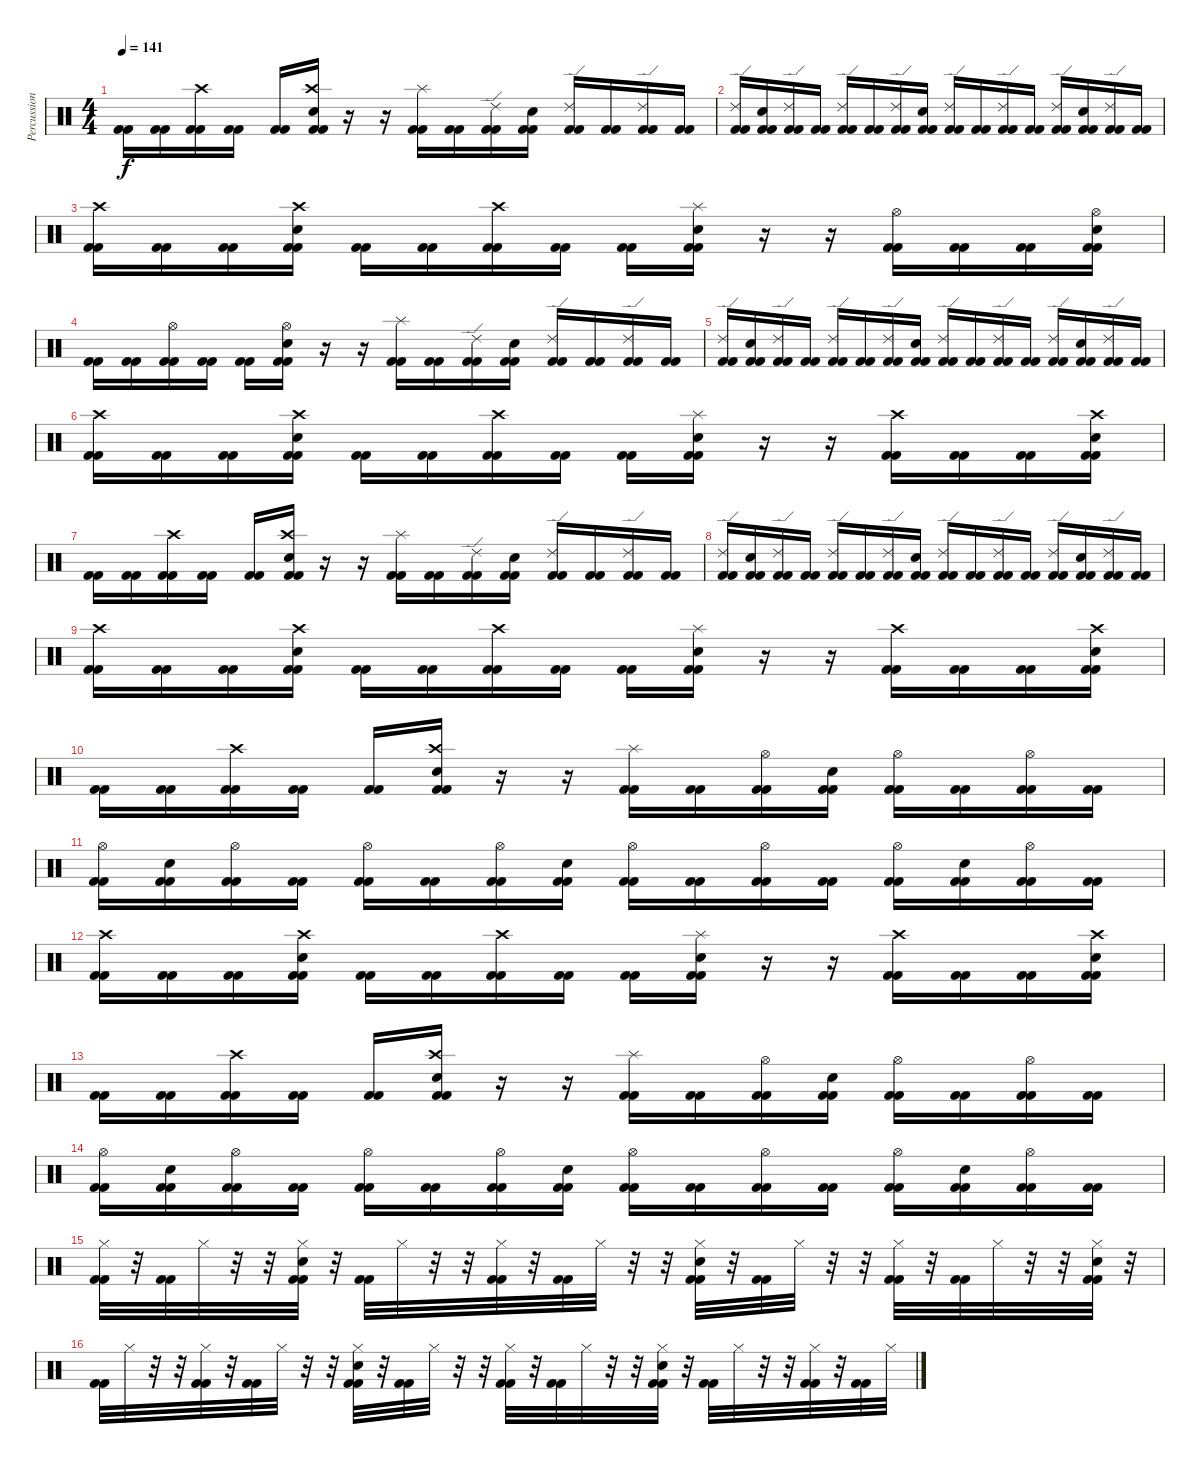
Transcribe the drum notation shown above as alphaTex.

\track ("Percussions" "Percussion") {instrument percussion}
\staff {score}
\articulation defaults
\ts (4 4)
\tempo 141
\clef neutral
\ks c
("Kick (hit) 2" "Kick (hit) 2").16{dy f} ("Kick (hit) 2" "Kick (hit) 2").16 ("Crash high (hit)" "Kick (hit) 2" "Kick (hit) 2").16 ("Kick (hit) 2" "Kick (hit) 2").16 ("Kick (hit) 2" "Kick (hit) 2").16 ("Crash high (hit)" "Snare (hit) 2" "Kick (hit) 2" "Kick (hit) 2").16 r.16 r.16 ("Splash (hit)" "Kick (hit) 2" "Kick (hit) 2").16 ("Kick (hit) 2" "Kick (hit) 2").16 ("Ride (edge) 2" "Kick (hit) 2" "Kick (hit) 2").16 ("Snare (hit) 2" "Kick (hit) 2" "Kick (hit) 2").16 ("Ride (edge) 2" "Kick (hit) 2" "Kick (hit) 2").16 ("Kick (hit) 2" "Kick (hit) 2").16 ("Ride (edge) 2" "Kick (hit) 2" "Kick (hit) 2").16 ("Kick (hit) 2" "Kick (hit) 2").16 |
("Ride (edge) 2" "Kick (hit) 2" "Kick (hit) 2").16 ("Snare (hit) 2" "Kick (hit) 2" "Kick (hit) 2").16 ("Ride (edge) 2" "Kick (hit) 2" "Kick (hit) 2").16 ("Kick (hit) 2" "Kick (hit) 2").16 ("Ride (edge) 2" "Kick (hit) 2" "Kick (hit) 2").16 ("Kick (hit) 2" "Kick (hit) 2").16 ("Ride (edge) 2" "Kick (hit) 2" "Kick (hit) 2").16 ("Snare (hit) 2" "Kick (hit) 2" "Kick (hit) 2").16 ("Ride (edge) 2" "Kick (hit) 2" "Kick (hit) 2").16 ("Kick (hit) 2" "Kick (hit) 2").16 ("Ride (edge) 2" "Kick (hit) 2" "Kick (hit) 2").16 ("Kick (hit) 2" "Kick (hit) 2").16 ("Ride (edge) 2" "Kick (hit) 2" "Kick (hit) 2").16 ("Snare (hit) 2" "Kick (hit) 2" "Kick (hit) 2").16 ("Ride (edge) 2" "Kick (hit) 2" "Kick (hit) 2").16 ("Kick (hit) 2" "Kick (hit) 2").16 |
("Crash high (hit)" "Kick (hit) 2" "Kick (hit) 2").16 ("Kick (hit) 2" "Kick (hit) 2").16 ("Kick (hit) 2" "Kick (hit) 2").16 ("Crash high (hit)" "Snare (hit) 2" "Kick (hit) 2" "Kick (hit) 2").16 ("Kick (hit) 2" "Kick (hit) 2").16 ("Kick (hit) 2" "Kick (hit) 2").16 ("Crash high (hit)" "Kick (hit) 2" "Kick (hit) 2").16 ("Kick (hit) 2" "Kick (hit) 2").16 ("Kick (hit) 2" "Kick (hit) 2").16 ("Splash (hit)" "Snare (hit) 2" "Kick (hit) 2" "Kick (hit) 2").16 r.16 r.16 ("Hi-Hat (open)" "Kick (hit) 2" "Kick (hit) 2").16 ("Kick (hit) 2" "Kick (hit) 2").16 ("Kick (hit) 2" "Kick (hit) 2").16 ("Hi-Hat (open)" "Snare (hit) 2" "Kick (hit) 2" "Kick (hit) 2").16 |
("Kick (hit) 2" "Kick (hit) 2").16 ("Kick (hit) 2" "Kick (hit) 2").16 ("Hi-Hat (open)" "Kick (hit) 2" "Kick (hit) 2").16 ("Kick (hit) 2" "Kick (hit) 2").16 ("Kick (hit) 2" "Kick (hit) 2").16 ("Hi-Hat (open)" "Snare (hit) 2" "Kick (hit) 2" "Kick (hit) 2").16 r.16 r.16 ("Splash (hit)" "Kick (hit) 2" "Kick (hit) 2").16 ("Kick (hit) 2" "Kick (hit) 2").16 ("Ride (edge) 2" "Kick (hit) 2" "Kick (hit) 2").16 ("Snare (hit) 2" "Kick (hit) 2" "Kick (hit) 2").16 ("Ride (edge) 2" "Kick (hit) 2" "Kick (hit) 2").16 ("Kick (hit) 2" "Kick (hit) 2").16 ("Ride (edge) 2" "Kick (hit) 2" "Kick (hit) 2").16 ("Kick (hit) 2" "Kick (hit) 2").16 |
("Ride (edge) 2" "Kick (hit) 2" "Kick (hit) 2").16 ("Snare (hit) 2" "Kick (hit) 2" "Kick (hit) 2").16 ("Ride (edge) 2" "Kick (hit) 2" "Kick (hit) 2").16 ("Kick (hit) 2" "Kick (hit) 2").16 ("Ride (edge) 2" "Kick (hit) 2" "Kick (hit) 2").16 ("Kick (hit) 2" "Kick (hit) 2").16 ("Ride (edge) 2" "Kick (hit) 2" "Kick (hit) 2").16 ("Snare (hit) 2" "Kick (hit) 2" "Kick (hit) 2").16 ("Ride (edge) 2" "Kick (hit) 2" "Kick (hit) 2").16 ("Kick (hit) 2" "Kick (hit) 2").16 ("Ride (edge) 2" "Kick (hit) 2" "Kick (hit) 2").16 ("Kick (hit) 2" "Kick (hit) 2").16 ("Ride (edge) 2" "Kick (hit) 2" "Kick (hit) 2").16 ("Snare (hit) 2" "Kick (hit) 2" "Kick (hit) 2").16 ("Ride (edge) 2" "Kick (hit) 2" "Kick (hit) 2").16 ("Kick (hit) 2" "Kick (hit) 2").16 |
("Crash high (hit)" "Kick (hit) 2" "Kick (hit) 2").16 ("Kick (hit) 2" "Kick (hit) 2").16 ("Kick (hit) 2" "Kick (hit) 2").16 ("Crash high (hit)" "Snare (hit) 2" "Kick (hit) 2" "Kick (hit) 2").16 ("Kick (hit) 2" "Kick (hit) 2").16 ("Kick (hit) 2" "Kick (hit) 2").16 ("Crash high (hit)" "Kick (hit) 2" "Kick (hit) 2").16 ("Kick (hit) 2" "Kick (hit) 2").16 ("Kick (hit) 2" "Kick (hit) 2").16 ("Splash (hit)" "Snare (hit) 2" "Kick (hit) 2" "Kick (hit) 2").16 r.16 r.16 ("Crash high (hit)" "Kick (hit) 2" "Kick (hit) 2").16 ("Kick (hit) 2" "Kick (hit) 2").16 ("Kick (hit) 2" "Kick (hit) 2").16 ("Crash high (hit)" "Snare (hit) 2" "Kick (hit) 2" "Kick (hit) 2").16 |
("Kick (hit) 2" "Kick (hit) 2").16 ("Kick (hit) 2" "Kick (hit) 2").16 ("Crash high (hit)" "Kick (hit) 2" "Kick (hit) 2").16 ("Kick (hit) 2" "Kick (hit) 2").16 ("Kick (hit) 2" "Kick (hit) 2").16 ("Crash high (hit)" "Snare (hit) 2" "Kick (hit) 2" "Kick (hit) 2").16 r.16 r.16 ("Splash (hit)" "Kick (hit) 2" "Kick (hit) 2").16 ("Kick (hit) 2" "Kick (hit) 2").16 ("Ride (edge) 2" "Kick (hit) 2" "Kick (hit) 2").16 ("Snare (hit) 2" "Kick (hit) 2" "Kick (hit) 2").16 ("Ride (edge) 2" "Kick (hit) 2" "Kick (hit) 2").16 ("Kick (hit) 2" "Kick (hit) 2").16 ("Ride (edge) 2" "Kick (hit) 2" "Kick (hit) 2").16 ("Kick (hit) 2" "Kick (hit) 2").16 |
("Ride (edge) 2" "Kick (hit) 2" "Kick (hit) 2").16 ("Snare (hit) 2" "Kick (hit) 2" "Kick (hit) 2").16 ("Ride (edge) 2" "Kick (hit) 2" "Kick (hit) 2").16 ("Kick (hit) 2" "Kick (hit) 2").16 ("Ride (edge) 2" "Kick (hit) 2" "Kick (hit) 2").16 ("Kick (hit) 2" "Kick (hit) 2").16 ("Ride (edge) 2" "Kick (hit) 2" "Kick (hit) 2").16 ("Snare (hit) 2" "Kick (hit) 2" "Kick (hit) 2").16 ("Ride (edge) 2" "Kick (hit) 2" "Kick (hit) 2").16 ("Kick (hit) 2" "Kick (hit) 2").16 ("Ride (edge) 2" "Kick (hit) 2" "Kick (hit) 2").16 ("Kick (hit) 2" "Kick (hit) 2").16 ("Ride (edge) 2" "Kick (hit) 2" "Kick (hit) 2").16 ("Snare (hit) 2" "Kick (hit) 2" "Kick (hit) 2").16 ("Ride (edge) 2" "Kick (hit) 2" "Kick (hit) 2").16 ("Kick (hit) 2" "Kick (hit) 2").16 |
("Crash high (hit)" "Kick (hit) 2" "Kick (hit) 2").16 ("Kick (hit) 2" "Kick (hit) 2").16 ("Kick (hit) 2" "Kick (hit) 2").16 ("Crash high (hit)" "Snare (hit) 2" "Kick (hit) 2" "Kick (hit) 2").16 ("Kick (hit) 2" "Kick (hit) 2").16 ("Kick (hit) 2" "Kick (hit) 2").16 ("Crash high (hit)" "Kick (hit) 2" "Kick (hit) 2").16 ("Kick (hit) 2" "Kick (hit) 2").16 ("Kick (hit) 2" "Kick (hit) 2").16 ("Splash (hit)" "Snare (hit) 2" "Kick (hit) 2" "Kick (hit) 2").16 r.16 r.16 ("Crash high (hit)" "Kick (hit) 2" "Kick (hit) 2").16 ("Kick (hit) 2" "Kick (hit) 2").16 ("Kick (hit) 2" "Kick (hit) 2").16 ("Crash high (hit)" "Snare (hit) 2" "Kick (hit) 2" "Kick (hit) 2").16 |
("Kick (hit) 2" "Kick (hit) 2").16 ("Kick (hit) 2" "Kick (hit) 2").16 ("Crash high (hit)" "Kick (hit) 2" "Kick (hit) 2").16 ("Kick (hit) 2" "Kick (hit) 2").16 ("Kick (hit) 2" "Kick (hit) 2").16 ("Crash high (hit)" "Snare (hit) 2" "Kick (hit) 2" "Kick (hit) 2").16 r.16 r.16 ("Splash (hit)" "Kick (hit) 2" "Kick (hit) 2").16 ("Kick (hit) 2" "Kick (hit) 2").16 ("Hi-Hat (open)" "Kick (hit) 2" "Kick (hit) 2").16 ("Snare (hit) 2" "Kick (hit) 2" "Kick (hit) 2").16 ("Hi-Hat (open)" "Kick (hit) 2" "Kick (hit) 2").16 ("Kick (hit) 2" "Kick (hit) 2").16 ("Hi-Hat (open)" "Kick (hit) 2" "Kick (hit) 2").16 ("Kick (hit) 2" "Kick (hit) 2").16 |
("Hi-Hat (open)" "Kick (hit) 2" "Kick (hit) 2").16 ("Snare (hit) 2" "Kick (hit) 2" "Kick (hit) 2").16 ("Hi-Hat (open)" "Kick (hit) 2" "Kick (hit) 2").16 ("Kick (hit) 2" "Kick (hit) 2").16 ("Hi-Hat (open)" "Kick (hit) 2" "Kick (hit) 2").16 ("Kick (hit) 2" "Kick (hit) 2").16 ("Hi-Hat (open)" "Kick (hit) 2" "Kick (hit) 2").16 ("Snare (hit) 2" "Kick (hit) 2" "Kick (hit) 2").16 ("Hi-Hat (open)" "Kick (hit) 2" "Kick (hit) 2").16 ("Kick (hit) 2" "Kick (hit) 2").16 ("Hi-Hat (open)" "Kick (hit) 2" "Kick (hit) 2").16 ("Kick (hit) 2" "Kick (hit) 2").16 ("Hi-Hat (open)" "Kick (hit) 2" "Kick (hit) 2").16 ("Snare (hit) 2" "Kick (hit) 2" "Kick (hit) 2").16 ("Hi-Hat (open)" "Kick (hit) 2" "Kick (hit) 2").16 ("Kick (hit) 2" "Kick (hit) 2").16 |
("Crash high (hit)" "Kick (hit) 2" "Kick (hit) 2").16 ("Kick (hit) 2" "Kick (hit) 2").16 ("Kick (hit) 2" "Kick (hit) 2").16 ("Crash high (hit)" "Snare (hit) 2" "Kick (hit) 2" "Kick (hit) 2").16 ("Kick (hit) 2" "Kick (hit) 2").16 ("Kick (hit) 2" "Kick (hit) 2").16 ("Crash high (hit)" "Kick (hit) 2" "Kick (hit) 2").16 ("Kick (hit) 2" "Kick (hit) 2").16 ("Kick (hit) 2" "Kick (hit) 2").16 ("Splash (hit)" "Snare (hit) 2" "Kick (hit) 2" "Kick (hit) 2").16 r.16 r.16 ("Crash high (hit)" "Kick (hit) 2" "Kick (hit) 2").16 ("Kick (hit) 2" "Kick (hit) 2").16 ("Kick (hit) 2" "Kick (hit) 2").16 ("Crash high (hit)" "Snare (hit) 2" "Kick (hit) 2" "Kick (hit) 2").16 |
("Kick (hit) 2" "Kick (hit) 2").16 ("Kick (hit) 2" "Kick (hit) 2").16 ("Crash high (hit)" "Kick (hit) 2" "Kick (hit) 2").16 ("Kick (hit) 2" "Kick (hit) 2").16 ("Kick (hit) 2" "Kick (hit) 2").16 ("Crash high (hit)" "Snare (hit) 2" "Kick (hit) 2" "Kick (hit) 2").16 r.16 r.16 ("Splash (hit)" "Kick (hit) 2" "Kick (hit) 2").16 ("Kick (hit) 2" "Kick (hit) 2").16 ("Hi-Hat (open)" "Kick (hit) 2" "Kick (hit) 2").16 ("Snare (hit) 2" "Kick (hit) 2" "Kick (hit) 2").16 ("Hi-Hat (open)" "Kick (hit) 2" "Kick (hit) 2").16 ("Kick (hit) 2" "Kick (hit) 2").16 ("Hi-Hat (open)" "Kick (hit) 2" "Kick (hit) 2").16 ("Kick (hit) 2" "Kick (hit) 2").16 |
("Hi-Hat (open)" "Kick (hit) 2" "Kick (hit) 2").16 ("Snare (hit) 2" "Kick (hit) 2" "Kick (hit) 2").16 ("Hi-Hat (open)" "Kick (hit) 2" "Kick (hit) 2").16 ("Kick (hit) 2" "Kick (hit) 2").16 ("Hi-Hat (open)" "Kick (hit) 2" "Kick (hit) 2").16 ("Kick (hit) 2" "Kick (hit) 2").16 ("Hi-Hat (open)" "Kick (hit) 2" "Kick (hit) 2").16 ("Snare (hit) 2" "Kick (hit) 2" "Kick (hit) 2").16 ("Hi-Hat (open)" "Kick (hit) 2" "Kick (hit) 2").16 ("Kick (hit) 2" "Kick (hit) 2").16 ("Hi-Hat (open)" "Kick (hit) 2" "Kick (hit) 2").16 ("Kick (hit) 2" "Kick (hit) 2").16 ("Hi-Hat (open)" "Kick (hit) 2" "Kick (hit) 2").16 ("Snare (hit) 2" "Kick (hit) 2" "Kick (hit) 2").16 ("Hi-Hat (open)" "Kick (hit) 2" "Kick (hit) 2").16 ("Kick (hit) 2" "Kick (hit) 2").16 |
("Hi-Hat (closed)" "Kick (hit) 2" "Kick (hit) 2").32 r.32 ("Kick (hit) 2" "Kick (hit) 2").32 "Hi-Hat (closed)".32 r.32 r.32 ("Hi-Hat (closed)" "Snare (hit) 2" "Kick (hit) 2" "Kick (hit) 2").32 r.32 ("Kick (hit) 2" "Kick (hit) 2").32 "Hi-Hat (closed)".32 r.32 r.32 ("Hi-Hat (closed)" "Kick (hit) 2" "Kick (hit) 2").32 r.32 ("Kick (hit) 2" "Kick (hit) 2").32 "Hi-Hat (closed)".32 r.32 r.32 ("Hi-Hat (closed)" "Snare (hit) 2" "Kick (hit) 2" "Kick (hit) 2").32 r.32 ("Kick (hit) 2" "Kick (hit) 2").32 "Hi-Hat (closed)".32 r.32 r.32 ("Hi-Hat (closed)" "Kick (hit) 2" "Kick (hit) 2").32 r.32 ("Kick (hit) 2" "Kick (hit) 2").32 "Hi-Hat (closed)".32 r.32 r.32 ("Hi-Hat (closed)" "Snare (hit) 2" "Kick (hit) 2" "Kick (hit) 2").32 r.32 |
("Kick (hit) 2" "Kick (hit) 2").32 "Hi-Hat (closed)".32 r.32 r.32 ("Hi-Hat (closed)" "Kick (hit) 2" "Kick (hit) 2").32 r.32 ("Kick (hit) 2" "Kick (hit) 2").32 "Hi-Hat (closed)".32 r.32 r.32 ("Hi-Hat (closed)" "Snare (hit) 2" "Kick (hit) 2" "Kick (hit) 2").32 r.32 ("Kick (hit) 2" "Kick (hit) 2").32 "Hi-Hat (closed)".32 r.32 r.32 ("Hi-Hat (closed)" "Kick (hit) 2" "Kick (hit) 2").32 r.32 ("Kick (hit) 2" "Kick (hit) 2").32 "Hi-Hat (closed)".32 r.32 r.32 ("Hi-Hat (closed)" "Snare (hit) 2" "Kick (hit) 2" "Kick (hit) 2").32 r.32 ("Kick (hit) 2" "Kick (hit) 2").32 "Hi-Hat (closed)".32 r.32 r.32 ("Hi-Hat (closed)" "Kick (hit) 2" "Kick (hit) 2").32 r.32 ("Kick (hit) 2" "Kick (hit) 2").32 "Hi-Hat (closed)".32
